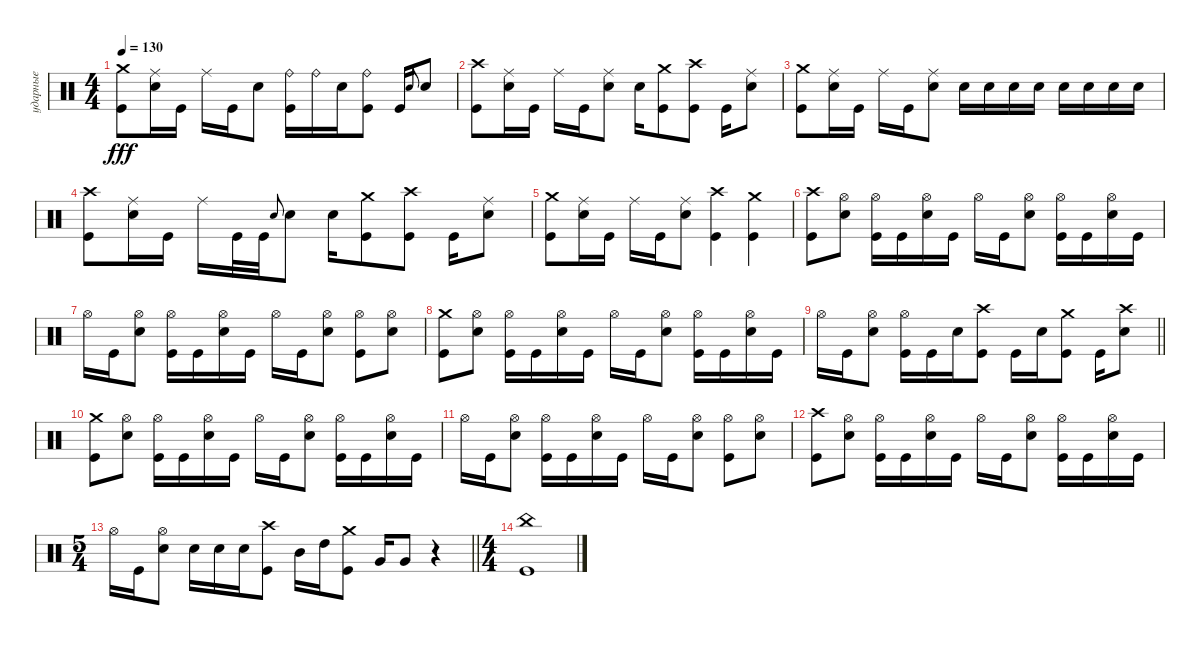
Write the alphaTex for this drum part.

\track ("ударные" "ударные") {instrument percussion}
\staff {score}
\articulation defaults
\ts (4 4)
\tempo 130
\clef neutral
\ks c
("Crash medium (hit)" "Kick (hit)").8{dy fff} ("Ride (middle)" "Snare (hit) 2").16 "Kick (hit)".16 "Ride (middle)".16 "Kick (hit)".16 "Snare (hit) 2".8 ("Ride (bell)" "Kick (hit)").16 "Ride (bell)".16 "Snare (hit) 2".16 ("Ride (bell)" "Kick (hit)").8 "Kick (hit)".16 "Snare (hit)".8{gr onbeat} "Snare (hit) 2".8 |
("Crash high (hit)" "Kick (hit)").8 ("Ride (middle)" "Snare (hit) 2").16 "Kick (hit)".16 "Ride (middle)".16 "Kick (hit)".16 ("Ride (middle)" "Snare (hit) 2").8 "Snare (hit) 2".16 ("Crash medium (hit)" "Kick (hit)").8 ("Crash high (hit)" "Kick (hit)").8 "Kick (hit)".16 ("Ride (middle)" "Snare (hit) 2").8 |
("Crash medium (hit)" "Kick (hit)").8 ("Ride (middle)" "Snare (hit) 2").16 "Kick (hit)".16 "Ride (middle)".16 "Kick (hit)".16 ("Ride (middle)" "Snare (hit) 2").8 "Snare (hit) 2".16 "Snare (hit) 2".16 "Snare (hit) 2".16 "Snare (hit) 2".16 "Snare (hit) 2".16 "Snare (hit) 2".16 "Snare (hit) 2".16 "Snare (hit) 2".16 |
("Crash high (hit)" "Kick (hit)").8 ("Ride (middle)" "Snare (hit) 2").16 "Kick (hit)".16 "Ride (middle)".16 "Kick (hit)".32 "Kick (hit)".32 "Snare (hit)".8{gr onbeat} "Snare (hit) 2".8 "Snare (hit) 2".16 ("Crash medium (hit)" "Kick (hit)").8 ("Crash high (hit)" "Kick (hit)").8 "Kick (hit)".16 ("Ride (middle)" "Snare (hit) 2").8 |
("Crash medium (hit)" "Kick (hit)").8 ("Ride (middle)" "Snare (hit) 2").16 "Kick (hit)".16 "Ride (middle)".16 "Kick (hit)".16 ("Ride (middle)" "Snare (hit) 2").8 ("Crash high (hit)" "Kick (hit)").4 ("Crash medium (hit)" "Kick (hit)").4 |
("Crash high (hit)" "Kick (hit)").8 ("Hi-Hat (open)" "Snare (hit) 2").8 ("Hi-Hat (open)" "Kick (hit)").16 "Kick (hit)".16 ("Hi-Hat (open)" "Snare (hit) 2").16 "Kick (hit)".16 "Hi-Hat (open)".16 "Kick (hit)".16 ("Hi-Hat (open)" "Snare (hit) 2").8 ("Hi-Hat (open)" "Kick (hit)").16 "Kick (hit)".16 ("Hi-Hat (open)" "Snare (hit) 2").16 "Kick (hit)".16 |
"Hi-Hat (open)".16 "Kick (hit)".16 ("Hi-Hat (open)" "Snare (hit) 2").8 ("Hi-Hat (open)" "Kick (hit)").16 "Kick (hit)".16 ("Hi-Hat (open)" "Snare (hit) 2").16 "Kick (hit)".16 "Hi-Hat (open)".16 "Kick (hit)".16 ("Hi-Hat (open)" "Snare (hit) 2").8 ("Hi-Hat (open)" "Kick (hit)").8 ("Hi-Hat (open)" "Snare (hit) 2").8 |
("Crash medium (hit)" "Kick (hit)").8 ("Hi-Hat (open)" "Snare (hit) 2").8 ("Hi-Hat (open)" "Kick (hit)").16 "Kick (hit)".16 ("Hi-Hat (open)" "Snare (hit) 2").16 "Kick (hit)".16 "Hi-Hat (open)".16 "Kick (hit)".16 ("Hi-Hat (open)" "Snare (hit) 2").8 ("Hi-Hat (open)" "Kick (hit)").16 "Kick (hit)".16 ("Hi-Hat (open)" "Snare (hit) 2").16 "Kick (hit)".16 |
\barLineRight lightlight "Hi-Hat (open)".16 "Kick (hit)".16
("Hi-Hat (open)" "Snare (hit) 2").8 ("Hi-Hat (open)" "Kick (hit)").16 "Kick (hit)".16 "Snare (hit) 2".16 ("Crash high (hit)" "Kick (hit)").8 "Kick (hit)".16 "Snare (hit) 2".16 ("Crash medium (hit)" "Kick (hit)").8 "Kick (hit)".16 ("Crash high (hit)" "Snare (hit) 2").8 |
("Crash medium (hit)" "Kick (hit)").8 ("Hi-Hat (open)" "Snare (hit) 2").8 ("Hi-Hat (open)" "Kick (hit)").16 "Kick (hit)".16 ("Hi-Hat (open)" "Snare (hit) 2").16 "Kick (hit)".16 "Hi-Hat (open)".16 "Kick (hit)".16 ("Hi-Hat (open)" "Snare (hit) 2").8 ("Hi-Hat (open)" "Kick (hit)").16 "Kick (hit)".16 ("Hi-Hat (open)" "Snare (hit) 2").16 "Kick (hit)".16 |
"Hi-Hat (open)".16 "Kick (hit)".16 ("Hi-Hat (open)" "Snare (hit) 2").8 ("Hi-Hat (open)" "Kick (hit)").16 "Kick (hit)".16 ("Hi-Hat (open)" "Snare (hit) 2").16 "Kick (hit)".16 "Hi-Hat (open)".16 "Kick (hit)".16 ("Hi-Hat (open)" "Snare (hit) 2").8 ("Hi-Hat (open)" "Kick (hit)").8 ("Hi-Hat (open)" "Snare (hit) 2").8 |
("Crash high (hit)" "Kick (hit)").8 ("Hi-Hat (open)" "Snare (hit) 2").8 ("Hi-Hat (open)" "Kick (hit)").16 "Kick (hit)".16 ("Hi-Hat (open)" "Snare (hit) 2").16 "Kick (hit)".16 "Hi-Hat (open)".16 "Kick (hit)".16 ("Hi-Hat (open)" "Snare (hit) 2").8 ("Hi-Hat (open)" "Kick (hit)").16 "Kick (hit)".16 ("Hi-Hat (open)" "Snare (hit) 2").16 "Kick (hit)".16 |
\ts (5 4)
\barLineRight lightlight "Hi-Hat (open)".16 "Kick (hit)".16
("Hi-Hat (open)" "Snare (hit) 2").8 "Snare (hit) 2".16 "Snare (hit) 2".16 "Snare (hit) 2".16 ("Crash high (hit)" "Kick (hit)").8 "Mid Tom (hit)".16 "High Tom (hit)".16 ("Crash medium (hit)" "Kick (hit)").8 "Very Low Tom (hit)".16 "Very Low Tom (hit)".8 r.4 |
\ts (4 4)
("China (hit)" "Kick (hit)").1
